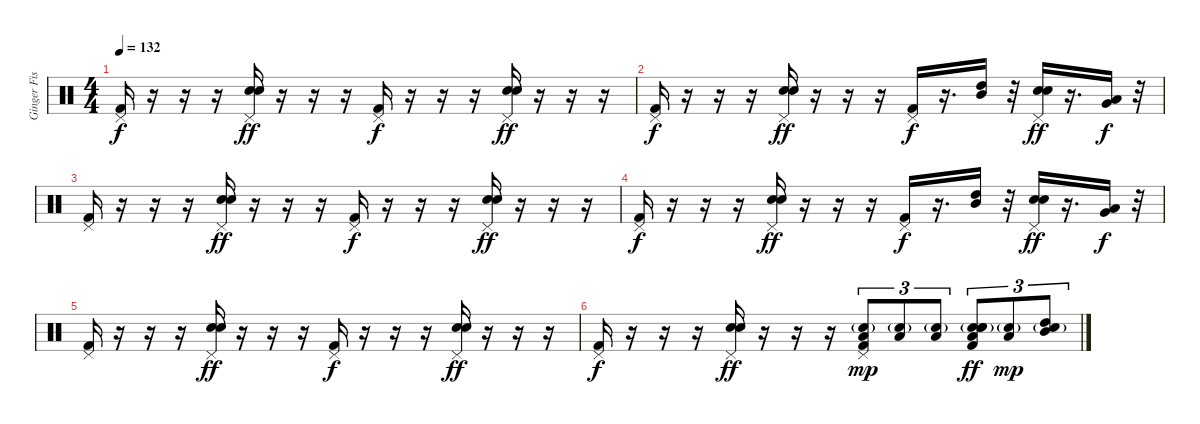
\track ("Ginger Fish" "Ginger Fis") {instrument percussion}
\staff {score}
\articulation defaults
\ts (4 4)
\tempo 132
\clef neutral
\ks c
("Pedal Hi-Hat (hit)" "Kick (hit) 2").16{dy f} r.16 r.16 r.16 ("Pedal Hi-Hat (hit)" "Snare (hit) 2" "Hand Clap (hit)").16{dy ff} r.16 r.16 r.16 ("Pedal Hi-Hat (hit)" "Kick (hit) 2").16{dy f} r.16 r.16 r.16 ("Pedal Hi-Hat (hit)" "Snare (hit) 2" "Hand Clap (hit)").16{dy ff} r.16 r.16 r.16 |
("Pedal Hi-Hat (hit)" "Kick (hit) 2").16{dy f} r.16 r.16 r.16 ("Pedal Hi-Hat (hit)" "Snare (hit) 2" "Hand Clap (hit)").16{dy ff} r.16 r.16 r.16 ("Pedal Hi-Hat (hit)" "Kick (hit) 2").16{dy f} r.16{d} ("High Tom (hit)" "Mid Tom (hit)").16 r.32 ("Pedal Hi-Hat (hit)" "Snare (hit) 2" "Hand Clap (hit)").16{dy ff} r.16{d} ("Very Low Tom (hit)" "Low Tom (hit)").16{dy f} r.32 |
("Pedal Hi-Hat (hit)" "Kick (hit) 2").16 r.16 r.16 r.16 ("Pedal Hi-Hat (hit)" "Snare (hit) 2" "Hand Clap (hit)").16{dy ff} r.16 r.16 r.16 ("Pedal Hi-Hat (hit)" "Kick (hit) 2").16{dy f} r.16 r.16 r.16 ("Pedal Hi-Hat (hit)" "Snare (hit) 2" "Hand Clap (hit)").16{dy ff} r.16 r.16 r.16 |
("Pedal Hi-Hat (hit)" "Kick (hit) 2").16{dy f} r.16 r.16 r.16 ("Pedal Hi-Hat (hit)" "Snare (hit) 2" "Hand Clap (hit)").16{dy ff} r.16 r.16 r.16 ("Pedal Hi-Hat (hit)" "Kick (hit) 2").16{dy f} r.16{d} ("High Tom (hit)" "Mid Tom (hit)").16 r.32 ("Pedal Hi-Hat (hit)" "Snare (hit) 2" "Hand Clap (hit)").16{dy ff} r.16{d} ("Very Low Tom (hit)" "Low Tom (hit)").16{dy f} r.32 |
("Pedal Hi-Hat (hit)" "Kick (hit) 2").16 r.16 r.16 r.16 ("Pedal Hi-Hat (hit)" "Snare (hit) 2" "Hand Clap (hit)").16{dy ff} r.16 r.16 r.16 ("Pedal Hi-Hat (hit)" "Kick (hit) 2").16{dy f} r.16 r.16 r.16 ("Pedal Hi-Hat (hit)" "Snare (hit) 2" "Hand Clap (hit)").16{dy ff} r.16 r.16 r.16 |
("Pedal Hi-Hat (hit)" "Kick (hit) 2").16{dy f} r.16 r.16 r.16 ("Pedal Hi-Hat (hit)" "Snare (hit) 2" "Hand Clap (hit)").16{dy ff} r.16 r.16 r.16 ("Pedal Hi-Hat (hit)" "Low Tom (hit)" "Electric Snare (hit)"{g} "Kick (hit) 2").8{tu (3 2) dy mp} ("Low Tom (hit)" "Electric Snare (hit)"{g}).8{tu (3 2)} ("Low Tom (hit)" "Electric Snare (hit)"{g}).8{tu (3 2)} ("Snare (hit) 2" "Low Floor Tom (hit)" "Electric Snare (hit)"{g} "Hand Clap (hit)" "Kick (hit) 2").8{tu (3 2) dy ff} ("Low Floor Tom (hit)" "Electric Snare (hit)"{g}).8{tu (3 2) dy mp} ("High Tom (hit)" "Mid Tom (hit)" "Electric Snare (hit)"{g}).8{tu (3 2)}
